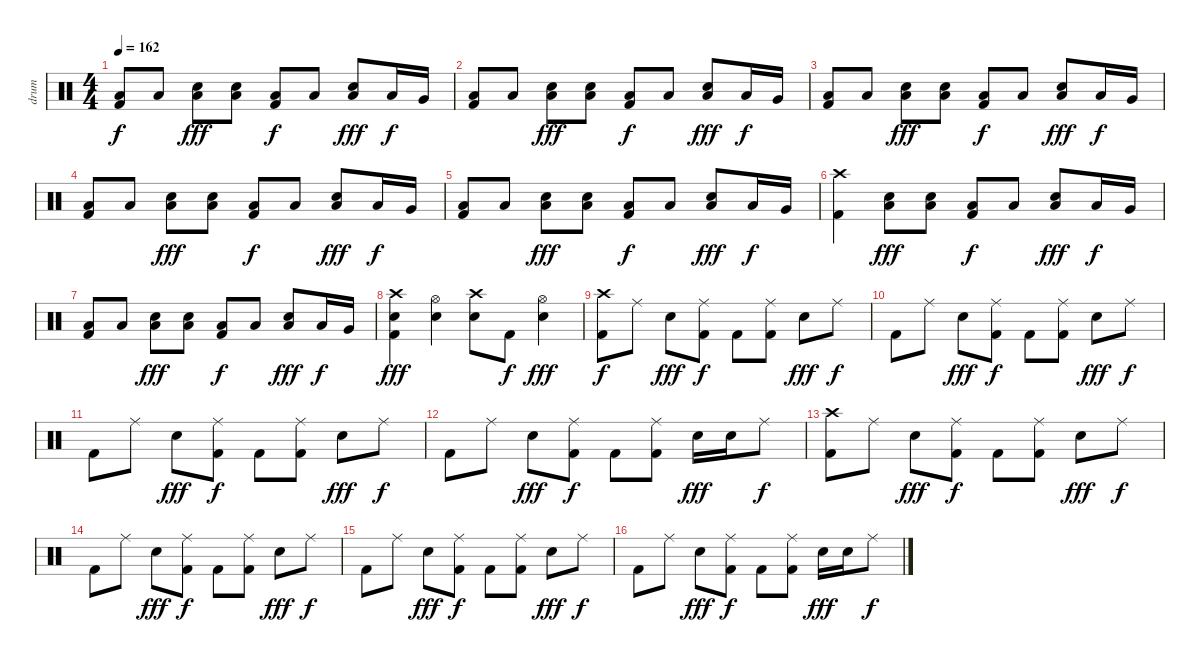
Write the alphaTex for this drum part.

\track ("drum" "drum") {instrument percussion}
\staff {score}
\articulation defaults
\ts (4 4)
\tempo 162
\clef neutral
\ks c
("Low Floor Tom (hit)" "Kick (hit) 2").8{dy f} "Low Floor Tom (hit)".8 ("Electric Snare (hit)" "Low Floor Tom (hit)").8{dy fff} ("Electric Snare (hit)" "Low Floor Tom (hit)").8 ("Low Floor Tom (hit)" "Kick (hit) 2").8{dy f} "Low Floor Tom (hit)".8 ("Electric Snare (hit)" "Low Floor Tom (hit)").8{dy fff} "Low Floor Tom (hit)".16{dy f} "Very Low Tom (hit)".16 |
("Low Floor Tom (hit)" "Kick (hit) 2").8 "Low Floor Tom (hit)".8 ("Electric Snare (hit)" "Low Floor Tom (hit)").8{dy fff} ("Electric Snare (hit)" "Low Floor Tom (hit)").8 ("Low Floor Tom (hit)" "Kick (hit) 2").8{dy f} "Low Floor Tom (hit)".8 ("Electric Snare (hit)" "Low Floor Tom (hit)").8{dy fff} "Low Floor Tom (hit)".16{dy f} "Very Low Tom (hit)".16 |
("Low Floor Tom (hit)" "Kick (hit) 2").8 "Low Floor Tom (hit)".8 ("Electric Snare (hit)" "Low Floor Tom (hit)").8{dy fff} ("Electric Snare (hit)" "Low Floor Tom (hit)").8 ("Low Floor Tom (hit)" "Kick (hit) 2").8{dy f} "Low Floor Tom (hit)".8 ("Electric Snare (hit)" "Low Floor Tom (hit)").8{dy fff} "Low Floor Tom (hit)".16{dy f} "Very Low Tom (hit)".16 |
("Low Floor Tom (hit)" "Kick (hit) 2").8 "Low Floor Tom (hit)".8 ("Electric Snare (hit)" "Low Floor Tom (hit)").8{dy fff} ("Electric Snare (hit)" "Low Floor Tom (hit)").8 ("Low Floor Tom (hit)" "Kick (hit) 2").8{dy f} "Low Floor Tom (hit)".8 ("Electric Snare (hit)" "Low Floor Tom (hit)").8{dy fff} "Low Floor Tom (hit)".16{dy f} "Very Low Tom (hit)".16 |
("Low Floor Tom (hit)" "Kick (hit) 2").8 "Low Floor Tom (hit)".8 ("Electric Snare (hit)" "Low Floor Tom (hit)").8{dy fff} ("Electric Snare (hit)" "Low Floor Tom (hit)").8 ("Low Floor Tom (hit)" "Kick (hit) 2").8{dy f} "Low Floor Tom (hit)".8 ("Electric Snare (hit)" "Low Floor Tom (hit)").8{dy fff} "Low Floor Tom (hit)".16{dy f} "Very Low Tom (hit)".16 |
("Crash high (hit)" "Kick (hit) 2").4 ("Electric Snare (hit)" "Low Floor Tom (hit)").8{dy fff} ("Electric Snare (hit)" "Low Floor Tom (hit)").8 ("Low Floor Tom (hit)" "Kick (hit) 2").8{dy f} "Low Floor Tom (hit)".8 ("Electric Snare (hit)" "Low Floor Tom (hit)").8{dy fff} "Low Floor Tom (hit)".16{dy f} "Very Low Tom (hit)".16 |
("Low Floor Tom (hit)" "Kick (hit) 2").8 "Low Floor Tom (hit)".8 ("Electric Snare (hit)" "Low Floor Tom (hit)").8{dy fff} ("Electric Snare (hit)" "Low Floor Tom (hit)").8 ("Low Floor Tom (hit)" "Kick (hit) 2").8{dy f} "Low Floor Tom (hit)".8 ("Electric Snare (hit)" "Low Floor Tom (hit)").8{dy fff} "Low Floor Tom (hit)".16{dy f} "Very Low Tom (hit)".16 |
("Crash high (hit)" "Electric Snare (hit)" "Kick (hit) 2").4{dy fff} ("Hi-Hat (open)" "Electric Snare (hit)").4 ("Crash high (hit)" "Electric Snare (hit)").8 "Kick (hit) 2".8{dy f} ("Hi-Hat (open)" "Electric Snare (hit)").4{dy fff} |
("Crash high (hit)" "Kick (hit) 2").8{dy f} "Ride (middle)".8 "Electric Snare (hit)".8{dy fff} ("Ride (middle)" "Kick (hit) 2").8{dy f} "Kick (hit) 2".8 ("Ride (middle)" "Kick (hit) 2").8 "Electric Snare (hit)".8{dy fff} "Ride (middle)".8{dy f} |
"Kick (hit) 2".8 "Ride (middle)".8 "Electric Snare (hit)".8{dy fff} ("Ride (middle)" "Kick (hit) 2").8{dy f} "Kick (hit) 2".8 ("Ride (middle)" "Kick (hit) 2").8 "Electric Snare (hit)".8{dy fff} "Ride (middle)".8{dy f} |
"Kick (hit) 2".8 "Ride (middle)".8 "Electric Snare (hit)".8{dy fff} ("Ride (middle)" "Kick (hit) 2").8{dy f} "Kick (hit) 2".8 ("Ride (middle)" "Kick (hit) 2").8 "Electric Snare (hit)".8{dy fff} "Ride (middle)".8{dy f} |
"Kick (hit) 2".8 "Ride (middle)".8 "Electric Snare (hit)".8{dy fff} ("Ride (middle)" "Kick (hit) 2").8{dy f} "Kick (hit) 2".8 ("Ride (middle)" "Kick (hit) 2").8 "Electric Snare (hit)".16{dy fff} "Electric Snare (hit)".16 "Ride (middle)".8{dy f} |
("Crash high (hit)" "Kick (hit) 2").8 "Ride (middle)".8 "Electric Snare (hit)".8{dy fff} ("Ride (middle)" "Kick (hit) 2").8{dy f} "Kick (hit) 2".8 ("Ride (middle)" "Kick (hit) 2").8 "Electric Snare (hit)".8{dy fff} "Ride (middle)".8{dy f} |
"Kick (hit) 2".8 "Ride (middle)".8 "Electric Snare (hit)".8{dy fff} ("Ride (middle)" "Kick (hit) 2").8{dy f} "Kick (hit) 2".8 ("Ride (middle)" "Kick (hit) 2").8 "Electric Snare (hit)".8{dy fff} "Ride (middle)".8{dy f} |
"Kick (hit) 2".8 "Ride (middle)".8 "Electric Snare (hit)".8{dy fff} ("Ride (middle)" "Kick (hit) 2").8{dy f} "Kick (hit) 2".8 ("Ride (middle)" "Kick (hit) 2").8 "Electric Snare (hit)".8{dy fff} "Ride (middle)".8{dy f} |
"Kick (hit) 2".8 "Ride (middle)".8 "Electric Snare (hit)".8{dy fff} ("Ride (middle)" "Kick (hit) 2").8{dy f} "Kick (hit) 2".8 ("Ride (middle)" "Kick (hit) 2").8 "Electric Snare (hit)".16{dy fff} "Electric Snare (hit)".16 "Ride (middle)".8{dy f}
